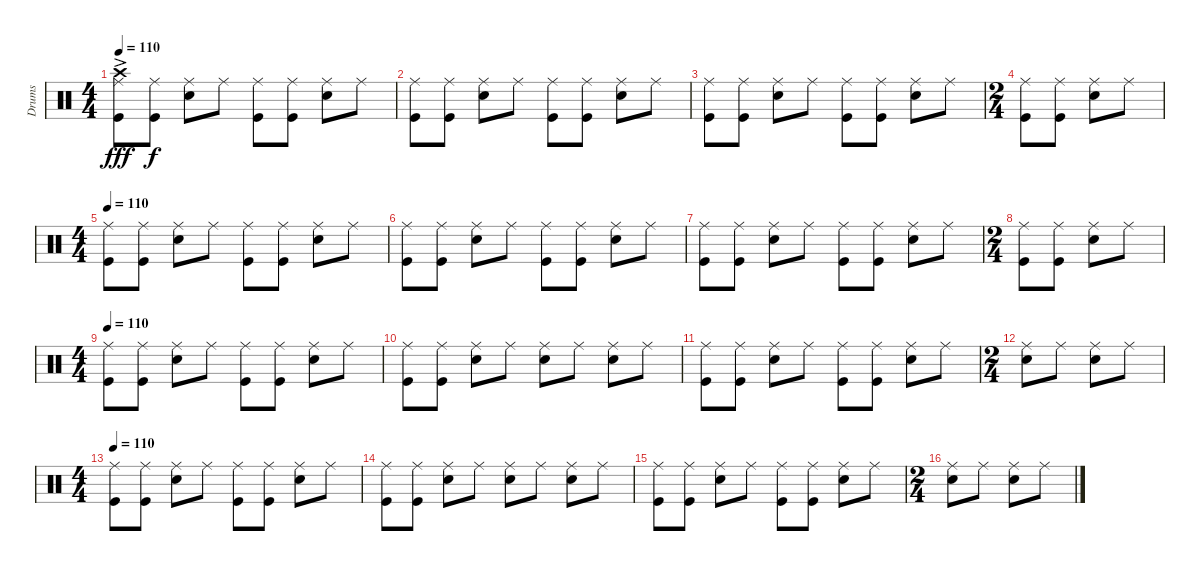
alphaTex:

\track ("Drums" "Drums") {instrument percussion}
\staff {score}
\articulation defaults
\ts (4 4)
\tempo 110
\clef neutral
\ks c
("Ride (middle)" "Crash high (hit)"{ac} "Kick (hit)").8{dy fff} ("Ride (middle)" "Kick (hit)").8{dy f} ("Ride (middle)" "Snare (hit) 2").8 "Ride (middle)".8 ("Ride (middle)" "Kick (hit)").8 ("Ride (middle)" "Kick (hit)").8 ("Ride (middle)" "Snare (hit) 2").8 "Ride (middle)".8 |
("Ride (middle)" "Kick (hit)").8 ("Ride (middle)" "Kick (hit)").8 ("Ride (middle)" "Snare (hit) 2").8 "Ride (middle)".8 ("Ride (middle)" "Kick (hit)").8 ("Ride (middle)" "Kick (hit)").8 ("Ride (middle)" "Snare (hit) 2").8 "Ride (middle)".8 |
("Ride (middle)" "Kick (hit)").8 ("Ride (middle)" "Kick (hit)").8 ("Ride (middle)" "Snare (hit) 2").8 "Ride (middle)".8 ("Ride (middle)" "Kick (hit)").8 ("Ride (middle)" "Kick (hit)").8 ("Ride (middle)" "Snare (hit) 2").8 "Ride (middle)".8 |
\ts (2 4)
("Ride (middle)" "Kick (hit)").8 ("Ride (middle)" "Kick (hit)").8 ("Ride (middle)" "Snare (hit) 2").8 "Ride (middle)".8 |
\ts (4 4)
\tempo 110
("Ride (middle)" "Kick (hit)").8 ("Ride (middle)" "Kick (hit)").8 ("Ride (middle)" "Snare (hit) 2").8 "Ride (middle)".8 ("Ride (middle)" "Kick (hit)").8 ("Ride (middle)" "Kick (hit)").8 ("Ride (middle)" "Snare (hit) 2").8 "Ride (middle)".8 |
("Ride (middle)" "Kick (hit)").8 ("Ride (middle)" "Kick (hit)").8 ("Ride (middle)" "Snare (hit) 2").8 "Ride (middle)".8 ("Ride (middle)" "Kick (hit)").8 ("Ride (middle)" "Kick (hit)").8 ("Ride (middle)" "Snare (hit) 2").8 "Ride (middle)".8 |
("Ride (middle)" "Kick (hit)").8 ("Ride (middle)" "Kick (hit)").8 ("Ride (middle)" "Snare (hit) 2").8 "Ride (middle)".8 ("Ride (middle)" "Kick (hit)").8 ("Ride (middle)" "Kick (hit)").8 ("Ride (middle)" "Snare (hit) 2").8 "Ride (middle)".8 |
\ts (2 4)
("Ride (middle)" "Kick (hit)").8 ("Ride (middle)" "Kick (hit)").8 ("Ride (middle)" "Snare (hit) 2").8 "Ride (middle)".8 |
\ts (4 4)
\tempo 110
("Ride (middle)" "Kick (hit)").8 ("Ride (middle)" "Kick (hit)").8 ("Ride (middle)" "Snare (hit) 2").8 "Ride (middle)".8 ("Ride (middle)" "Kick (hit)").8 ("Ride (middle)" "Kick (hit)").8 ("Ride (middle)" "Snare (hit) 2").8 "Ride (middle)".8 |
("Ride (middle)" "Kick (hit)").8 ("Ride (middle)" "Kick (hit)").8 ("Ride (middle)" "Snare (hit) 2").8 "Ride (middle)".8 ("Ride (middle)" "Snare (hit) 2").8 "Ride (middle)".8 ("Ride (middle)" "Snare (hit) 2").8 "Ride (middle)".8 |
("Ride (middle)" "Kick (hit)").8 ("Ride (middle)" "Kick (hit)").8 ("Ride (middle)" "Snare (hit) 2").8 "Ride (middle)".8 ("Ride (middle)" "Kick (hit)").8 ("Ride (middle)" "Kick (hit)").8 ("Ride (middle)" "Snare (hit) 2").8 "Ride (middle)".8 |
\ts (2 4)
("Ride (middle)" "Snare (hit) 2").8 "Ride (middle)".8 ("Ride (middle)" "Snare (hit) 2").8 "Ride (middle)".8 |
\ts (4 4)
\tempo 110
("Ride (middle)" "Kick (hit)").8 ("Ride (middle)" "Kick (hit)").8 ("Ride (middle)" "Snare (hit) 2").8 "Ride (middle)".8 ("Ride (middle)" "Kick (hit)").8 ("Ride (middle)" "Kick (hit)").8 ("Ride (middle)" "Snare (hit) 2").8 "Ride (middle)".8 |
("Ride (middle)" "Kick (hit)").8 ("Ride (middle)" "Kick (hit)").8 ("Ride (middle)" "Snare (hit) 2").8 "Ride (middle)".8 ("Ride (middle)" "Snare (hit) 2").8 "Ride (middle)".8 ("Ride (middle)" "Snare (hit) 2").8 "Ride (middle)".8 |
("Ride (middle)" "Kick (hit)").8 ("Ride (middle)" "Kick (hit)").8 ("Ride (middle)" "Snare (hit) 2").8 "Ride (middle)".8 ("Ride (middle)" "Kick (hit)").8 ("Ride (middle)" "Kick (hit)").8 ("Ride (middle)" "Snare (hit) 2").8 "Ride (middle)".8 |
\ts (2 4)
("Ride (middle)" "Snare (hit) 2").8 "Ride (middle)".8 ("Ride (middle)" "Snare (hit) 2").8 "Ride (middle)".8
